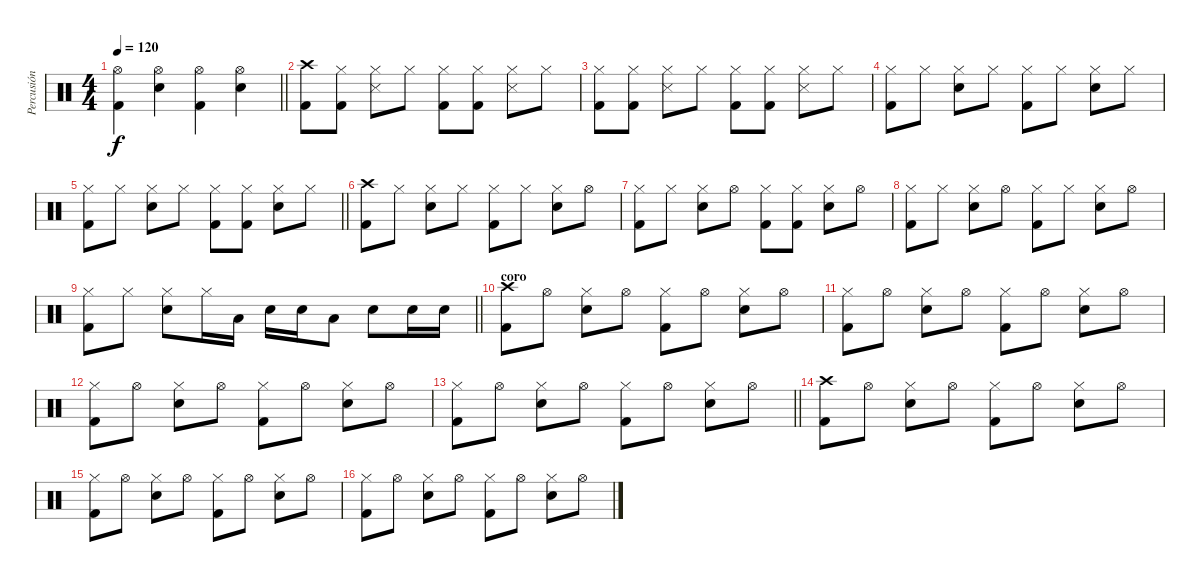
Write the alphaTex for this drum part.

\track ("Percusión" "Percusión") {instrument percussion}
\staff {score}
\articulation defaults
\ts (4 4)
\tempo 120
\clef neutral
\barLineRight lightlight
\ks c
("Hi-Hat (open)" "Kick (hit) 2").4{dy f} ("Hi-Hat (open)" "Electric Snare (hit)").4 ("Hi-Hat (open)" "Kick (hit) 2").4 ("Hi-Hat (open)" "Electric Snare (hit)").4 |
\section ("" "")
("Crash high (hit)" "Kick (hit) 2").8 ("Hi-Hat (closed)" "Kick (hit) 2").8 ("Hi-Hat (closed)" "Snare (side stick) 3").8 "Hi-Hat (closed)".8 ("Hi-Hat (closed)" "Kick (hit) 2").8 ("Hi-Hat (closed)" "Kick (hit) 2").8 ("Hi-Hat (closed)" "Snare (side stick) 3").8 "Hi-Hat (closed)".8 |
("Hi-Hat (closed)" "Kick (hit) 2").8 ("Hi-Hat (closed)" "Kick (hit) 2").8 ("Hi-Hat (closed)" "Snare (side stick) 3").8 "Hi-Hat (closed)".8 ("Hi-Hat (closed)" "Kick (hit) 2").8 ("Hi-Hat (closed)" "Kick (hit) 2").8 ("Hi-Hat (closed)" "Snare (side stick) 3").8 "Hi-Hat (closed)".8 |
("Hi-Hat (closed)" "Kick (hit) 2").8 "Hi-Hat (closed)".8 ("Hi-Hat (closed)" "Electric Snare (hit)").8 "Hi-Hat (closed)".8 ("Hi-Hat (closed)" "Kick (hit) 2").8 "Hi-Hat (closed)".8 ("Hi-Hat (closed)" "Electric Snare (hit)").8 "Hi-Hat (closed)".8 |
\barLineRight lightlight
("Hi-Hat (closed)" "Kick (hit) 2").8 "Hi-Hat (closed)".8 ("Hi-Hat (closed)" "Electric Snare (hit)").8 "Hi-Hat (closed)".8 ("Hi-Hat (closed)" "Kick (hit) 2").8 ("Hi-Hat (closed)" "Kick (hit) 2").8 ("Hi-Hat (closed)" "Electric Snare (hit)").8 "Hi-Hat (closed)".8 |
("Crash high (hit)" "Kick (hit) 2").8 "Hi-Hat (closed)".8 ("Hi-Hat (closed)" "Electric Snare (hit)").8 "Hi-Hat (closed)".8 ("Hi-Hat (closed)" "Kick (hit) 2").8 "Hi-Hat (closed)".8 ("Hi-Hat (closed)" "Electric Snare (hit)").8 "Hi-Hat (open)".8 |
("Hi-Hat (closed)" "Kick (hit) 2").8 "Hi-Hat (closed)".8 ("Hi-Hat (closed)" "Electric Snare (hit)").8 "Hi-Hat (open)".8 ("Hi-Hat (closed)" "Kick (hit) 2").8 ("Hi-Hat (closed)" "Kick (hit) 2").8 ("Hi-Hat (closed)" "Electric Snare (hit)").8 "Hi-Hat (open)".8 |
("Hi-Hat (closed)" "Kick (hit) 2").8 "Hi-Hat (closed)".8 ("Hi-Hat (closed)" "Electric Snare (hit)").8 "Hi-Hat (open)".8 ("Hi-Hat (closed)" "Kick (hit) 2").8 "Hi-Hat (closed)".8 ("Hi-Hat (closed)" "Electric Snare (hit)").8 "Hi-Hat (open)".8 |
\barLineRight lightlight
("Hi-Hat (closed)" "Kick (hit) 2").8 "Hi-Hat (closed)".8 ("Hi-Hat (closed)" "Electric Snare (hit)").8 "Hi-Hat (closed)".16 "Low Tom (hit)".16 "Electric Snare (hit)".16 "Electric Snare (hit)".16 "Low Tom (hit)".8 "Electric Snare (hit)".8 "Electric Snare (hit)".16 "Electric Snare (hit)".16 |
\section ("" "coro")
("Crash high (hit)" "Kick (hit) 2").8 "Hi-Hat (open)".8 ("Hi-Hat (closed)" "Electric Snare (hit)").8 "Hi-Hat (open)".8 ("Hi-Hat (closed)" "Kick (hit) 2").8 "Hi-Hat (open)".8 ("Hi-Hat (closed)" "Electric Snare (hit)").8 "Hi-Hat (open)".8 |
("Hi-Hat (closed)" "Kick (hit) 2").8 "Hi-Hat (open)".8 ("Hi-Hat (closed)" "Electric Snare (hit)").8 "Hi-Hat (open)".8 ("Hi-Hat (closed)" "Kick (hit) 2").8 "Hi-Hat (open)".8 ("Hi-Hat (closed)" "Electric Snare (hit)").8 "Hi-Hat (open)".8 |
("Hi-Hat (closed)" "Kick (hit) 2").8 "Hi-Hat (open)".8 ("Hi-Hat (closed)" "Electric Snare (hit)").8 "Hi-Hat (open)".8 ("Hi-Hat (closed)" "Kick (hit) 2").8 "Hi-Hat (open)".8 ("Hi-Hat (closed)" "Electric Snare (hit)").8 "Hi-Hat (open)".8 |
\barLineRight lightlight
("Hi-Hat (closed)" "Kick (hit) 2").8 "Hi-Hat (open)".8 ("Hi-Hat (closed)" "Electric Snare (hit)").8 "Hi-Hat (open)".8 ("Hi-Hat (closed)" "Kick (hit) 2").8 "Hi-Hat (open)".8 ("Hi-Hat (closed)" "Electric Snare (hit)").8 "Hi-Hat (open)".8 |
("Crash high (hit)" "Kick (hit) 2").8 "Hi-Hat (open)".8 ("Hi-Hat (closed)" "Electric Snare (hit)").8 "Hi-Hat (open)".8 ("Hi-Hat (closed)" "Kick (hit) 2").8 "Hi-Hat (open)".8 ("Hi-Hat (closed)" "Electric Snare (hit)").8 "Hi-Hat (open)".8 |
("Hi-Hat (closed)" "Kick (hit) 2").8 "Hi-Hat (open)".8 ("Hi-Hat (closed)" "Electric Snare (hit)").8 "Hi-Hat (open)".8 ("Hi-Hat (closed)" "Kick (hit) 2").8 "Hi-Hat (open)".8 ("Hi-Hat (closed)" "Electric Snare (hit)").8 "Hi-Hat (open)".8 |
("Hi-Hat (closed)" "Kick (hit) 2").8 "Hi-Hat (open)".8 ("Hi-Hat (closed)" "Electric Snare (hit)").8 "Hi-Hat (open)".8 ("Hi-Hat (closed)" "Kick (hit) 2").8 "Hi-Hat (open)".8 ("Hi-Hat (closed)" "Electric Snare (hit)").8 "Hi-Hat (open)".8
